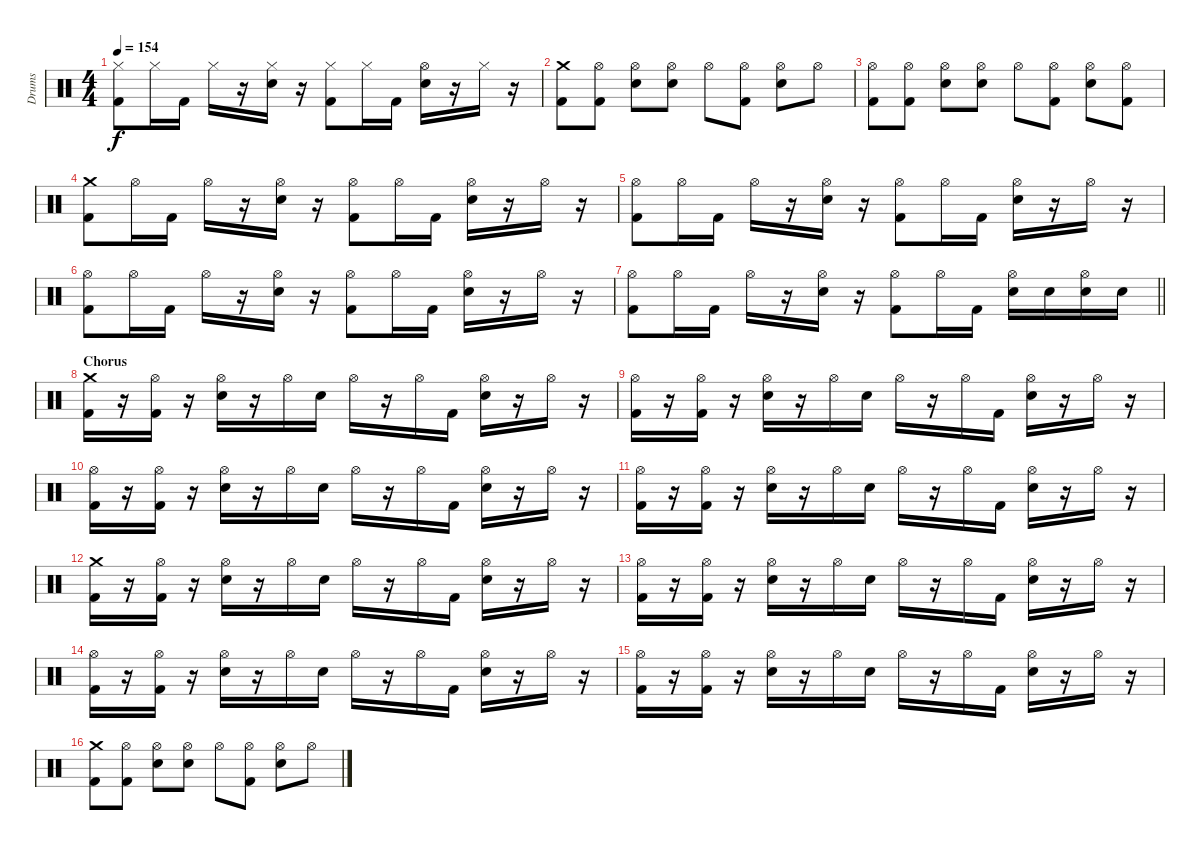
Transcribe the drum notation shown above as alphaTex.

\track ("Drums" "Drums") {instrument percussion}
\staff {score}
\articulation defaults
\ts (4 4)
\tempo 154
\clef neutral
\ks c
("Kick (hit) 2" "Hi-Hat (closed)").8{dy f} "Hi-Hat (closed)".16 "Kick (hit) 2".16 "Hi-Hat (closed)".16 r.16 ("Electric Snare (hit)" "Hi-Hat (closed)").16 r.16 ("Kick (hit) 2" "Hi-Hat (closed)").8 "Hi-Hat (closed)".16 "Kick (hit) 2".16 ("Electric Snare (hit)" "Hi-Hat (open)").16 r.16 "Hi-Hat (closed)".16 r.16 |
("Kick (hit) 2" "Crash medium (hit)").8 ("Kick (hit) 2" "Hi-Hat (open)").8 ("Electric Snare (hit)" "Hi-Hat (open)").8 ("Electric Snare (hit)" "Hi-Hat (open)").8 "Hi-Hat (open)".8 ("Kick (hit) 2" "Hi-Hat (open)").8 ("Electric Snare (hit)" "Hi-Hat (open)").8 "Hi-Hat (open)".8 |
("Kick (hit) 2" "Hi-Hat (open)").8 ("Kick (hit) 2" "Hi-Hat (open)").8 ("Electric Snare (hit)" "Hi-Hat (open)").8 ("Electric Snare (hit)" "Hi-Hat (open)").8 "Hi-Hat (open)".8 ("Kick (hit) 2" "Hi-Hat (open)").8 ("Electric Snare (hit)" "Hi-Hat (open)").8 ("Kick (hit) 2" "Hi-Hat (open)").8 |
("Kick (hit) 2" "Crash medium (hit)").8 "Hi-Hat (open)".16 "Kick (hit) 2".16 "Hi-Hat (open)".16 r.16 ("Electric Snare (hit)" "Hi-Hat (open)").16 r.16 ("Kick (hit) 2" "Hi-Hat (open)").8 "Hi-Hat (open)".16 "Kick (hit) 2".16 ("Electric Snare (hit)" "Hi-Hat (open)").16 r.16 "Hi-Hat (open)".16 r.16 |
("Kick (hit) 2" "Hi-Hat (open)").8 "Hi-Hat (open)".16 "Kick (hit) 2".16 "Hi-Hat (open)".16 r.16 ("Electric Snare (hit)" "Hi-Hat (open)").16 r.16 ("Kick (hit) 2" "Hi-Hat (open)").8 "Hi-Hat (open)".16 "Kick (hit) 2".16 ("Electric Snare (hit)" "Hi-Hat (open)").16 r.16 "Hi-Hat (open)".16 r.16 |
("Kick (hit) 2" "Hi-Hat (open)").8 "Hi-Hat (open)".16 "Kick (hit) 2".16 "Hi-Hat (open)".16 r.16 ("Electric Snare (hit)" "Hi-Hat (open)").16 r.16 ("Kick (hit) 2" "Hi-Hat (open)").8 "Hi-Hat (open)".16 "Kick (hit) 2".16 ("Electric Snare (hit)" "Hi-Hat (open)").16 r.16 "Hi-Hat (open)".16 r.16 |
\barLineRight lightlight
("Kick (hit) 2" "Hi-Hat (open)").8 "Hi-Hat (open)".16 "Kick (hit) 2".16 "Hi-Hat (open)".16 r.16 ("Electric Snare (hit)" "Hi-Hat (open)").16 r.16 ("Kick (hit) 2" "Hi-Hat (open)").8 "Hi-Hat (open)".16 "Kick (hit) 2".16 ("Electric Snare (hit)" "Hi-Hat (open)").16 "Electric Snare (hit)".16 ("Electric Snare (hit)" "Hi-Hat (open)").16 "Electric Snare (hit)".16 |
\section ("" "Chorus")
("Kick (hit) 2" "Crash medium (hit)").16 r.16 ("Kick (hit) 2" "Hi-Hat (open)").16 r.16 ("Electric Snare (hit)" "Hi-Hat (open)").16 r.16 "Hi-Hat (open)".16 "Electric Snare (hit)".16 "Hi-Hat (open)".16 r.16 "Hi-Hat (open)".16 "Kick (hit) 2".16 ("Electric Snare (hit)" "Hi-Hat (open)").16 r.16 "Hi-Hat (open)".16 r.16 |
("Kick (hit) 2" "Hi-Hat (open)").16 r.16 ("Kick (hit) 2" "Hi-Hat (open)").16 r.16 ("Electric Snare (hit)" "Hi-Hat (open)").16 r.16 "Hi-Hat (open)".16 "Electric Snare (hit)".16 "Hi-Hat (open)".16 r.16 "Hi-Hat (open)".16 "Kick (hit) 2".16 ("Electric Snare (hit)" "Hi-Hat (open)").16 r.16 "Hi-Hat (open)".16 r.16 |
("Kick (hit) 2" "Hi-Hat (open)").16 r.16 ("Kick (hit) 2" "Hi-Hat (open)").16 r.16 ("Electric Snare (hit)" "Hi-Hat (open)").16 r.16 "Hi-Hat (open)".16 "Electric Snare (hit)".16 "Hi-Hat (open)".16 r.16 "Hi-Hat (open)".16 "Kick (hit) 2".16 ("Electric Snare (hit)" "Hi-Hat (open)").16 r.16 "Hi-Hat (open)".16 r.16 |
("Kick (hit) 2" "Hi-Hat (open)").16 r.16 ("Kick (hit) 2" "Hi-Hat (open)").16 r.16 ("Electric Snare (hit)" "Hi-Hat (open)").16 r.16 "Hi-Hat (open)".16 "Electric Snare (hit)".16 "Hi-Hat (open)".16 r.16 "Hi-Hat (open)".16 "Kick (hit) 2".16 ("Electric Snare (hit)" "Hi-Hat (open)").16 r.16 "Hi-Hat (open)".16 r.16 |
("Kick (hit) 2" "Crash medium (hit)").16 r.16 ("Kick (hit) 2" "Hi-Hat (open)").16 r.16 ("Electric Snare (hit)" "Hi-Hat (open)").16 r.16 "Hi-Hat (open)".16 "Electric Snare (hit)".16 "Hi-Hat (open)".16 r.16 "Hi-Hat (open)".16 "Kick (hit) 2".16 ("Electric Snare (hit)" "Hi-Hat (open)").16 r.16 "Hi-Hat (open)".16 r.16 |
("Kick (hit) 2" "Hi-Hat (open)").16 r.16 ("Kick (hit) 2" "Hi-Hat (open)").16 r.16 ("Electric Snare (hit)" "Hi-Hat (open)").16 r.16 "Hi-Hat (open)".16 "Electric Snare (hit)".16 "Hi-Hat (open)".16 r.16 "Hi-Hat (open)".16 "Kick (hit) 2".16 ("Electric Snare (hit)" "Hi-Hat (open)").16 r.16 "Hi-Hat (open)".16 r.16 |
("Kick (hit) 2" "Hi-Hat (open)").16 r.16 ("Kick (hit) 2" "Hi-Hat (open)").16 r.16 ("Electric Snare (hit)" "Hi-Hat (open)").16 r.16 "Hi-Hat (open)".16 "Electric Snare (hit)".16 "Hi-Hat (open)".16 r.16 "Hi-Hat (open)".16 "Kick (hit) 2".16 ("Electric Snare (hit)" "Hi-Hat (open)").16 r.16 "Hi-Hat (open)".16 r.16 |
("Kick (hit) 2" "Hi-Hat (open)").16 r.16 ("Kick (hit) 2" "Hi-Hat (open)").16 r.16 ("Electric Snare (hit)" "Hi-Hat (open)").16 r.16 "Hi-Hat (open)".16 "Electric Snare (hit)".16 "Hi-Hat (open)".16 r.16 "Hi-Hat (open)".16 "Kick (hit) 2".16 ("Electric Snare (hit)" "Hi-Hat (open)").16 r.16 "Hi-Hat (open)".16 r.16 |
("Kick (hit) 2" "Crash medium (hit)").8 ("Kick (hit) 2" "Hi-Hat (open)").8 ("Electric Snare (hit)" "Hi-Hat (open)").8 ("Electric Snare (hit)" "Hi-Hat (open)").8 "Hi-Hat (open)".8 ("Kick (hit) 2" "Hi-Hat (open)").8 ("Electric Snare (hit)" "Hi-Hat (open)").8 "Hi-Hat (open)".8
